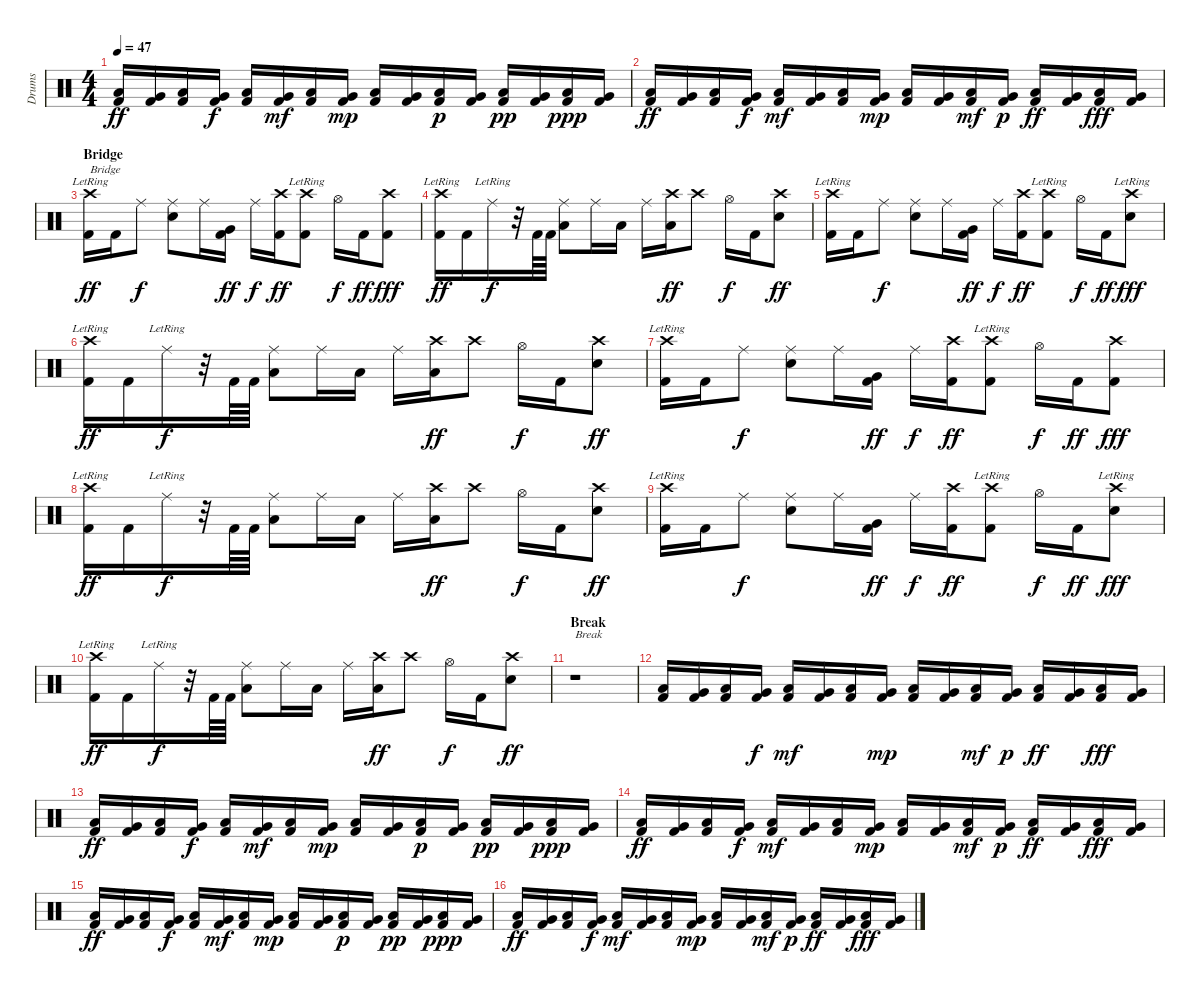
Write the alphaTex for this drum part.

\track ("Drums" "Drums") {instrument percussion}
\staff {score}
\articulation defaults
\ts (4 4)
\tempo 47
\clef neutral
\ks c
("Low Floor Tom (hit)" "Kick (hit) 2").16{dy ff} ("Very Low Tom (hit)" "Kick (hit) 2").16 ("Low Floor Tom (hit)" "Kick (hit) 2").16 ("Very Low Tom (hit)" "Kick (hit) 2").16{dy f} ("Low Floor Tom (hit)" "Kick (hit) 2").16 ("Very Low Tom (hit)" "Kick (hit) 2").16{dy mf} ("Low Floor Tom (hit)" "Kick (hit) 2").16 ("Very Low Tom (hit)" "Kick (hit) 2").16{dy mp} ("Low Floor Tom (hit)" "Kick (hit) 2").16 ("Very Low Tom (hit)" "Kick (hit) 2").16 ("Low Floor Tom (hit)" "Kick (hit) 2").16{dy p} ("Very Low Tom (hit)" "Kick (hit) 2").16 ("Low Floor Tom (hit)" "Kick (hit) 2").16{dy pp} ("Very Low Tom (hit)" "Kick (hit) 2").16 ("Low Floor Tom (hit)" "Kick (hit) 2").16{dy ppp} ("Very Low Tom (hit)" "Kick (hit) 2").16 |
("Low Floor Tom (hit)" "Kick (hit) 2").16{dy ff} ("Very Low Tom (hit)" "Kick (hit) 2").16 ("Low Floor Tom (hit)" "Kick (hit) 2").16 ("Very Low Tom (hit)" "Kick (hit) 2").16{dy f} ("Low Floor Tom (hit)" "Kick (hit) 2").16{dy mf} ("Very Low Tom (hit)" "Kick (hit) 2").16 ("Low Floor Tom (hit)" "Kick (hit) 2").16 ("Very Low Tom (hit)" "Kick (hit) 2").16{dy mp} ("Low Floor Tom (hit)" "Kick (hit) 2").16 ("Very Low Tom (hit)" "Kick (hit) 2").16 ("Low Floor Tom (hit)" "Kick (hit) 2").16{dy mf} ("Very Low Tom (hit)" "Kick (hit) 2").16{dy p} ("Low Floor Tom (hit)" "Kick (hit) 2").16{dy ff} ("Very Low Tom (hit)" "Kick (hit) 2").16 ("Low Floor Tom (hit)" "Kick (hit) 2").16{dy fff} ("Very Low Tom (hit)" "Kick (hit) 2").16 |
\section ("" "Bridge")
("Crash high (hit)"{lr} "Kick (hit) 2").16{txt "Bridge" dy ff} "Kick (hit) 2".16 "Ride (middle)".8{dy f} ("Ride (middle)" "Snare (hit) 2").8 "Ride (middle)".16 ("Very Low Tom (hit)" "Kick (hit) 2").16{dy ff} "Ride (middle)".16{dy f} ("Crash high (hit)" "Kick (hit) 2").16{dy ff} ("Crash high (hit)"{lr} "Kick (hit) 2").8 "Hi-Hat (open)".16{dy f} "Kick (hit) 2".16{dy ff} ("Crash high (hit)" "Kick (hit) 2").8{dy fff} |
("Crash high (hit)"{lr} "Kick (hit) 2").16{dy ff} "Kick (hit) 2".16 "Ride (middle)"{lr}.16{dy f} r.32 "Kick (hit) 2".64 "Kick (hit) 2".64 ("Ride (middle)" "Low Tom (hit)").8 "Ride (middle)".16 "Low Tom (hit)".16 "Ride (middle)".16 ("Crash high (hit)" "Low Tom (hit)").16{dy ff} "Crash high (hit)".8 "Hi-Hat (open)".16{dy f} "Kick (hit) 2".16 ("Crash high (hit)" "Snare (hit) 2").8{dy ff} |
("Crash high (hit)"{lr} "Kick (hit) 2").16 "Kick (hit) 2".16 "Ride (middle)".8{dy f} ("Ride (middle)" "Snare (hit) 2").8 "Ride (middle)".16 ("Very Low Tom (hit)" "Kick (hit) 2").16{dy ff} "Ride (middle)".16{dy f} ("Crash high (hit)" "Kick (hit) 2").16{dy ff} ("Crash high (hit)"{lr} "Kick (hit) 2").8 "Hi-Hat (open)".16{dy f} "Kick (hit) 2".16{dy ff} ("Crash high (hit)"{lr} "Snare (hit) 2").8{dy fff} |
("Crash high (hit)"{lr} "Kick (hit) 2").16{dy ff} "Kick (hit) 2".16 "Ride (middle)"{lr}.16{dy f} r.32 "Kick (hit) 2".64 "Kick (hit) 2".64 ("Ride (middle)" "Low Tom (hit)").8 "Ride (middle)".16 "Low Tom (hit)".16 "Ride (middle)".16 ("Crash high (hit)" "Low Tom (hit)").16{dy ff} "Crash high (hit)".8 "Hi-Hat (open)".16{dy f} "Kick (hit) 2".16 ("Crash high (hit)" "Snare (hit) 2").8{dy ff} |
("Crash high (hit)"{lr} "Kick (hit) 2").16 "Kick (hit) 2".16 "Ride (middle)".8{dy f} ("Ride (middle)" "Snare (hit) 2").8 "Ride (middle)".16 ("Very Low Tom (hit)" "Kick (hit) 2").16{dy ff} "Ride (middle)".16{dy f} ("Crash high (hit)" "Kick (hit) 2").16{dy ff} ("Crash high (hit)"{lr} "Kick (hit) 2").8 "Hi-Hat (open)".16{dy f} "Kick (hit) 2".16{dy ff} ("Crash high (hit)" "Kick (hit) 2").8{dy fff} |
("Crash high (hit)"{lr} "Kick (hit) 2").16{dy ff} "Kick (hit) 2".16 "Ride (middle)"{lr}.16{dy f} r.32 "Kick (hit) 2".64 "Kick (hit) 2".64 ("Ride (middle)" "Low Tom (hit)").8 "Ride (middle)".16 "Low Tom (hit)".16 "Ride (middle)".16 ("Crash high (hit)" "Low Tom (hit)").16{dy ff} "Crash high (hit)".8 "Hi-Hat (open)".16{dy f} "Kick (hit) 2".16 ("Crash high (hit)" "Snare (hit) 2").8{dy ff} |
("Crash high (hit)"{lr} "Kick (hit) 2").16 "Kick (hit) 2".16 "Ride (middle)".8{dy f} ("Ride (middle)" "Snare (hit) 2").8 "Ride (middle)".16 ("Very Low Tom (hit)" "Kick (hit) 2").16{dy ff} "Ride (middle)".16{dy f} ("Crash high (hit)" "Kick (hit) 2").16{dy ff} ("Crash high (hit)"{lr} "Kick (hit) 2").8 "Hi-Hat (open)".16{dy f} "Kick (hit) 2".16{dy ff} ("Crash high (hit)"{lr} "Snare (hit) 2").8{dy fff} |
("Crash high (hit)"{lr} "Kick (hit) 2").16{dy ff} "Kick (hit) 2".16 "Ride (middle)"{lr}.16{dy f} r.32 "Kick (hit) 2".64 "Kick (hit) 2".64 ("Ride (middle)" "Low Tom (hit)").8 "Ride (middle)".16 "Low Tom (hit)".16 "Ride (middle)".16 ("Crash high (hit)" "Low Tom (hit)").16{dy ff} "Crash high (hit)".8 "Hi-Hat (open)".16{dy f} "Kick (hit) 2".16 ("Crash high (hit)" "Snare (hit) 2").8{dy ff} |
\section ("" "Break")
r.1{txt "Break"} |
("Low Floor Tom (hit)" "Kick (hit) 2").16 ("Very Low Tom (hit)" "Kick (hit) 2").16 ("Low Floor Tom (hit)" "Kick (hit) 2").16 ("Very Low Tom (hit)" "Kick (hit) 2").16{dy f} ("Low Floor Tom (hit)" "Kick (hit) 2").16{dy mf} ("Very Low Tom (hit)" "Kick (hit) 2").16 ("Low Floor Tom (hit)" "Kick (hit) 2").16 ("Very Low Tom (hit)" "Kick (hit) 2").16{dy mp} ("Low Floor Tom (hit)" "Kick (hit) 2").16 ("Very Low Tom (hit)" "Kick (hit) 2").16 ("Low Floor Tom (hit)" "Kick (hit) 2").16{dy mf} ("Very Low Tom (hit)" "Kick (hit) 2").16{dy p} ("Low Floor Tom (hit)" "Kick (hit) 2").16{dy ff} ("Very Low Tom (hit)" "Kick (hit) 2").16 ("Low Floor Tom (hit)" "Kick (hit) 2").16{dy fff} ("Very Low Tom (hit)" "Kick (hit) 2").16 |
("Low Floor Tom (hit)" "Kick (hit) 2").16{dy ff} ("Very Low Tom (hit)" "Kick (hit) 2").16 ("Low Floor Tom (hit)" "Kick (hit) 2").16 ("Very Low Tom (hit)" "Kick (hit) 2").16{dy f} ("Low Floor Tom (hit)" "Kick (hit) 2").16 ("Very Low Tom (hit)" "Kick (hit) 2").16{dy mf} ("Low Floor Tom (hit)" "Kick (hit) 2").16 ("Very Low Tom (hit)" "Kick (hit) 2").16{dy mp} ("Low Floor Tom (hit)" "Kick (hit) 2").16 ("Very Low Tom (hit)" "Kick (hit) 2").16 ("Low Floor Tom (hit)" "Kick (hit) 2").16{dy p} ("Very Low Tom (hit)" "Kick (hit) 2").16 ("Low Floor Tom (hit)" "Kick (hit) 2").16{dy pp} ("Very Low Tom (hit)" "Kick (hit) 2").16 ("Low Floor Tom (hit)" "Kick (hit) 2").16{dy ppp} ("Very Low Tom (hit)" "Kick (hit) 2").16 |
("Low Floor Tom (hit)" "Kick (hit) 2").16{dy ff} ("Very Low Tom (hit)" "Kick (hit) 2").16 ("Low Floor Tom (hit)" "Kick (hit) 2").16 ("Very Low Tom (hit)" "Kick (hit) 2").16{dy f} ("Low Floor Tom (hit)" "Kick (hit) 2").16{dy mf} ("Very Low Tom (hit)" "Kick (hit) 2").16 ("Low Floor Tom (hit)" "Kick (hit) 2").16 ("Very Low Tom (hit)" "Kick (hit) 2").16{dy mp} ("Low Floor Tom (hit)" "Kick (hit) 2").16 ("Very Low Tom (hit)" "Kick (hit) 2").16 ("Low Floor Tom (hit)" "Kick (hit) 2").16{dy mf} ("Very Low Tom (hit)" "Kick (hit) 2").16{dy p} ("Low Floor Tom (hit)" "Kick (hit) 2").16{dy ff} ("Very Low Tom (hit)" "Kick (hit) 2").16 ("Low Floor Tom (hit)" "Kick (hit) 2").16{dy fff} ("Very Low Tom (hit)" "Kick (hit) 2").16 |
("Low Floor Tom (hit)" "Kick (hit) 2").16{dy ff} ("Very Low Tom (hit)" "Kick (hit) 2").16 ("Low Floor Tom (hit)" "Kick (hit) 2").16 ("Very Low Tom (hit)" "Kick (hit) 2").16{dy f} ("Low Floor Tom (hit)" "Kick (hit) 2").16 ("Very Low Tom (hit)" "Kick (hit) 2").16{dy mf} ("Low Floor Tom (hit)" "Kick (hit) 2").16 ("Very Low Tom (hit)" "Kick (hit) 2").16{dy mp} ("Low Floor Tom (hit)" "Kick (hit) 2").16 ("Very Low Tom (hit)" "Kick (hit) 2").16 ("Low Floor Tom (hit)" "Kick (hit) 2").16{dy p} ("Very Low Tom (hit)" "Kick (hit) 2").16 ("Low Floor Tom (hit)" "Kick (hit) 2").16{dy pp} ("Very Low Tom (hit)" "Kick (hit) 2").16 ("Low Floor Tom (hit)" "Kick (hit) 2").16{dy ppp} ("Very Low Tom (hit)" "Kick (hit) 2").16 |
("Low Floor Tom (hit)" "Kick (hit) 2").16{dy ff} ("Very Low Tom (hit)" "Kick (hit) 2").16 ("Low Floor Tom (hit)" "Kick (hit) 2").16 ("Very Low Tom (hit)" "Kick (hit) 2").16{dy f} ("Low Floor Tom (hit)" "Kick (hit) 2").16{dy mf} ("Very Low Tom (hit)" "Kick (hit) 2").16 ("Low Floor Tom (hit)" "Kick (hit) 2").16 ("Very Low Tom (hit)" "Kick (hit) 2").16{dy mp} ("Low Floor Tom (hit)" "Kick (hit) 2").16 ("Very Low Tom (hit)" "Kick (hit) 2").16 ("Low Floor Tom (hit)" "Kick (hit) 2").16{dy mf} ("Very Low Tom (hit)" "Kick (hit) 2").16{dy p} ("Low Floor Tom (hit)" "Kick (hit) 2").16{dy ff} ("Very Low Tom (hit)" "Kick (hit) 2").16 ("Low Floor Tom (hit)" "Kick (hit) 2").16{dy fff} ("Very Low Tom (hit)" "Kick (hit) 2").16
